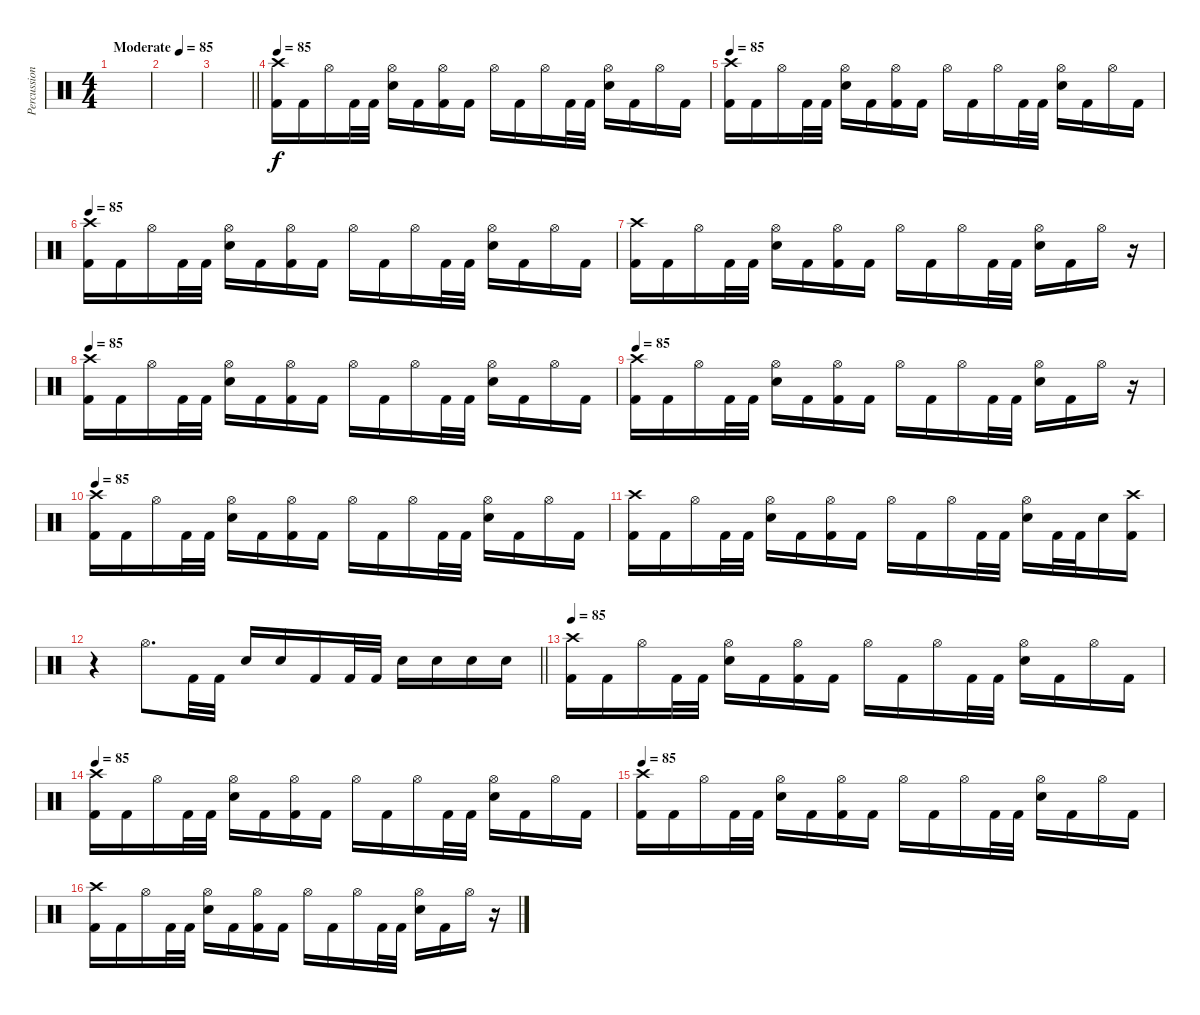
\track ("Percussion" "Percussion") {instrument percussion}
\staff {score}
\articulation defaults
\ts (4 4)
\tempo (85 "Moderate")
\clef neutral
\ks c
|
|
\barLineRight lightlight
|
\tempo 85
("Crash high (hit)" "Kick (hit) 2").16 "Kick (hit) 2".16 "Hi-Hat (open)".16 "Kick (hit) 2".32 "Kick (hit) 2".32 ("Hi-Hat (open)" "Electric Snare (hit)").16 "Kick (hit) 2".16 ("Hi-Hat (open)" "Kick (hit) 2").16 "Kick (hit) 2".16 "Hi-Hat (open)".16 "Kick (hit) 2".16 "Hi-Hat (open)".16 "Kick (hit) 2".32 "Kick (hit) 2".32 ("Hi-Hat (open)" "Electric Snare (hit)").16 "Kick (hit) 2".16 "Hi-Hat (open)".16 "Kick (hit) 2".16 |
\tempo 85
("Crash high (hit)" "Kick (hit) 2").16 "Kick (hit) 2".16 "Hi-Hat (open)".16 "Kick (hit) 2".32 "Kick (hit) 2".32 ("Hi-Hat (open)" "Electric Snare (hit)").16 "Kick (hit) 2".16 ("Hi-Hat (open)" "Kick (hit) 2").16 "Kick (hit) 2".16 "Hi-Hat (open)".16 "Kick (hit) 2".16 "Hi-Hat (open)".16 "Kick (hit) 2".32 "Kick (hit) 2".32 ("Hi-Hat (open)" "Electric Snare (hit)").16 "Kick (hit) 2".16 "Hi-Hat (open)".16 "Kick (hit) 2".16 |
\tempo 85
("Crash high (hit)" "Kick (hit) 2").16 "Kick (hit) 2".16 "Hi-Hat (open)".16 "Kick (hit) 2".32 "Kick (hit) 2".32 ("Hi-Hat (open)" "Electric Snare (hit)").16 "Kick (hit) 2".16 ("Hi-Hat (open)" "Kick (hit) 2").16 "Kick (hit) 2".16 "Hi-Hat (open)".16 "Kick (hit) 2".16 "Hi-Hat (open)".16 "Kick (hit) 2".32 "Kick (hit) 2".32 ("Hi-Hat (open)" "Electric Snare (hit)").16 "Kick (hit) 2".16 "Hi-Hat (open)".16 "Kick (hit) 2".16 |
("Crash high (hit)" "Kick (hit) 2").16 "Kick (hit) 2".16 "Hi-Hat (open)".16 "Kick (hit) 2".32 "Kick (hit) 2".32 ("Hi-Hat (open)" "Electric Snare (hit)").16 "Kick (hit) 2".16 ("Hi-Hat (open)" "Kick (hit) 2").16 "Kick (hit) 2".16 "Hi-Hat (open)".16 "Kick (hit) 2".16 "Hi-Hat (open)".16 "Kick (hit) 2".32 "Kick (hit) 2".32 ("Hi-Hat (open)" "Electric Snare (hit)").16 "Kick (hit) 2".16 "Hi-Hat (open)".16 r.16 |
\tempo 85
("Crash high (hit)" "Kick (hit) 2").16 "Kick (hit) 2".16 "Hi-Hat (open)".16 "Kick (hit) 2".32 "Kick (hit) 2".32 ("Hi-Hat (open)" "Electric Snare (hit)").16 "Kick (hit) 2".16 ("Hi-Hat (open)" "Kick (hit) 2").16 "Kick (hit) 2".16 "Hi-Hat (open)".16 "Kick (hit) 2".16 "Hi-Hat (open)".16 "Kick (hit) 2".32 "Kick (hit) 2".32 ("Hi-Hat (open)" "Electric Snare (hit)").16 "Kick (hit) 2".16 "Hi-Hat (open)".16 "Kick (hit) 2".16 |
\tempo 85
("Crash high (hit)" "Kick (hit) 2").16 "Kick (hit) 2".16 "Hi-Hat (open)".16 "Kick (hit) 2".32 "Kick (hit) 2".32 ("Hi-Hat (open)" "Electric Snare (hit)").16 "Kick (hit) 2".16 ("Hi-Hat (open)" "Kick (hit) 2").16 "Kick (hit) 2".16 "Hi-Hat (open)".16 "Kick (hit) 2".16 "Hi-Hat (open)".16 "Kick (hit) 2".32 "Kick (hit) 2".32 ("Hi-Hat (open)" "Electric Snare (hit)").16 "Kick (hit) 2".16 "Hi-Hat (open)".16 r.16 |
\tempo 85
("Crash high (hit)" "Kick (hit) 2").16 "Kick (hit) 2".16 "Hi-Hat (open)".16 "Kick (hit) 2".32 "Kick (hit) 2".32 ("Hi-Hat (open)" "Electric Snare (hit)").16 "Kick (hit) 2".16 ("Hi-Hat (open)" "Kick (hit) 2").16 "Kick (hit) 2".16 "Hi-Hat (open)".16 "Kick (hit) 2".16 "Hi-Hat (open)".16 "Kick (hit) 2".32 "Kick (hit) 2".32 ("Hi-Hat (open)" "Electric Snare (hit)").16 "Kick (hit) 2".16 "Hi-Hat (open)".16 "Kick (hit) 2".16 |
("Crash high (hit)" "Kick (hit) 2").16 "Kick (hit) 2".16 "Hi-Hat (open)".16 "Kick (hit) 2".32 "Kick (hit) 2".32 ("Hi-Hat (open)" "Electric Snare (hit)").16 "Kick (hit) 2".16 ("Hi-Hat (open)" "Kick (hit) 2").16 "Kick (hit) 2".16 "Hi-Hat (open)".16 "Kick (hit) 2".16 "Hi-Hat (open)".16 "Kick (hit) 2".32 "Kick (hit) 2".32 ("Hi-Hat (open)" "Electric Snare (hit)").16 "Kick (hit) 2".32 "Kick (hit) 2".32 "Electric Snare (hit)".16 ("Crash high (hit)" "Kick (hit) 2").16 |
\barLineRight lightlight
r.4 "Hi-Hat (open)".8{d} "Kick (hit) 2".32 "Kick (hit) 2".32 "Electric Snare (hit)".16 "Electric Snare (hit)".16 "Kick (hit) 2".16 "Kick (hit) 2".32 "Kick (hit) 2".32 "Electric Snare (hit)".16 "Electric Snare (hit)".16 "Electric Snare (hit)".16 "Electric Snare (hit)".16 |
\tempo 85
("Crash high (hit)" "Kick (hit) 2").16 "Kick (hit) 2".16 "Hi-Hat (open)".16 "Kick (hit) 2".32 "Kick (hit) 2".32 ("Hi-Hat (open)" "Electric Snare (hit)").16 "Kick (hit) 2".16 ("Hi-Hat (open)" "Kick (hit) 2").16 "Kick (hit) 2".16 "Hi-Hat (open)".16 "Kick (hit) 2".16 "Hi-Hat (open)".16 "Kick (hit) 2".32 "Kick (hit) 2".32 ("Hi-Hat (open)" "Electric Snare (hit)").16 "Kick (hit) 2".16 "Hi-Hat (open)".16 "Kick (hit) 2".16 |
\tempo 85
("Crash high (hit)" "Kick (hit) 2").16 "Kick (hit) 2".16 "Hi-Hat (open)".16 "Kick (hit) 2".32 "Kick (hit) 2".32 ("Hi-Hat (open)" "Electric Snare (hit)").16 "Kick (hit) 2".16 ("Hi-Hat (open)" "Kick (hit) 2").16 "Kick (hit) 2".16 "Hi-Hat (open)".16 "Kick (hit) 2".16 "Hi-Hat (open)".16 "Kick (hit) 2".32 "Kick (hit) 2".32 ("Hi-Hat (open)" "Electric Snare (hit)").16 "Kick (hit) 2".16 "Hi-Hat (open)".16 "Kick (hit) 2".16 |
\tempo 85
("Crash high (hit)" "Kick (hit) 2").16 "Kick (hit) 2".16 "Hi-Hat (open)".16 "Kick (hit) 2".32 "Kick (hit) 2".32 ("Hi-Hat (open)" "Electric Snare (hit)").16 "Kick (hit) 2".16 ("Hi-Hat (open)" "Kick (hit) 2").16 "Kick (hit) 2".16 "Hi-Hat (open)".16 "Kick (hit) 2".16 "Hi-Hat (open)".16 "Kick (hit) 2".32 "Kick (hit) 2".32 ("Hi-Hat (open)" "Electric Snare (hit)").16 "Kick (hit) 2".16 "Hi-Hat (open)".16 "Kick (hit) 2".16 |
("Crash high (hit)" "Kick (hit) 2").16 "Kick (hit) 2".16 "Hi-Hat (open)".16 "Kick (hit) 2".32 "Kick (hit) 2".32 ("Hi-Hat (open)" "Electric Snare (hit)").16 "Kick (hit) 2".16 ("Hi-Hat (open)" "Kick (hit) 2").16 "Kick (hit) 2".16 "Hi-Hat (open)".16 "Kick (hit) 2".16 "Hi-Hat (open)".16 "Kick (hit) 2".32 "Kick (hit) 2".32 ("Hi-Hat (open)" "Electric Snare (hit)").16 "Kick (hit) 2".16 "Hi-Hat (open)".16 r.16
